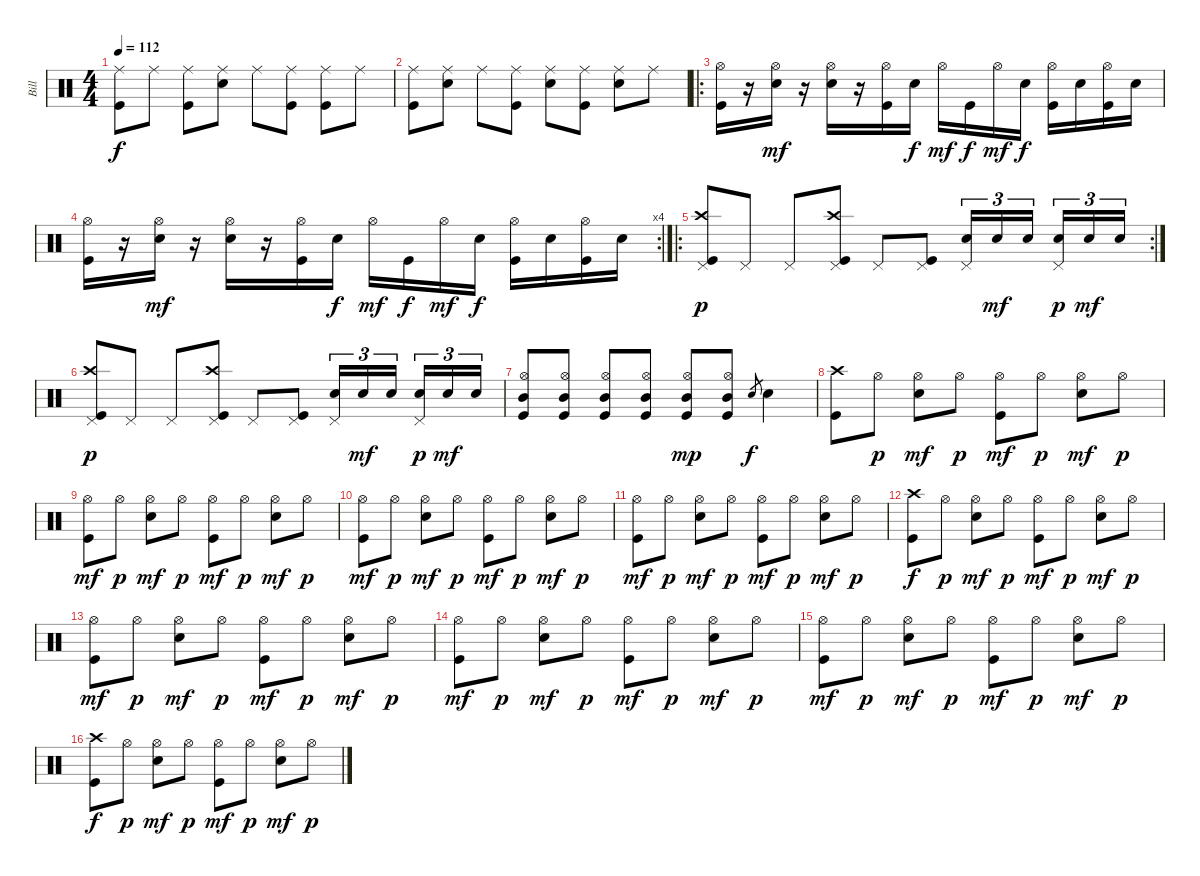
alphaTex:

\track ("Bill" "Bill") {instrument percussion}
\staff {score}
\articulation defaults
\ts (4 4)
\tempo 112
\clef neutral
\ks c
("Ride (middle)" "Kick (hit)").8{dy f} "Ride (middle)".8 ("Ride (middle)" "Kick (hit)").8 ("Ride (middle)" "Snare (hit) 2").8 "Ride (middle)".8 ("Ride (middle)" "Kick (hit)").8 ("Ride (middle)" "Kick (hit)").8 "Ride (middle)".8 |
("Ride (middle)" "Kick (hit)").8 ("Ride (middle)" "Snare (hit) 2").8 "Ride (middle)".8 ("Ride (middle)" "Kick (hit)").8 ("Ride (middle)" "Snare (hit) 2").8 ("Ride (middle)" "Kick (hit)").8 ("Ride (middle)" "Snare (hit) 2").8 "Ride (middle)".8 |
\ro
("Hi-Hat (open)" "Kick (hit)").16 r.16 ("Hi-Hat (open)" "Snare (hit) 2").16{dy mf} r.16 ("Hi-Hat (open)" "Snare (hit) 2").16 r.16 ("Hi-Hat (open)" "Kick (hit)").16 "Snare (hit) 2".16{dy f} "Hi-Hat (open)".16{dy mf} "Kick (hit)".16{dy f} "Hi-Hat (open)".16{dy mf} "Snare (hit) 2".16{dy f} ("Hi-Hat (open)" "Kick (hit)").16 "Snare (hit) 2".16 ("Hi-Hat (open)" "Kick (hit)").16 "Snare (hit) 2".16 |
\rc 4
("Hi-Hat (open)" "Kick (hit)").16 r.16 ("Hi-Hat (open)" "Snare (hit) 2").16{dy mf} r.16 ("Hi-Hat (open)" "Snare (hit) 2").16 r.16 ("Hi-Hat (open)" "Kick (hit)").16 "Snare (hit) 2".16{dy f} "Hi-Hat (open)".16{dy mf} "Kick (hit)".16{dy f} "Hi-Hat (open)".16{dy mf} "Snare (hit) 2".16{dy f} ("Hi-Hat (open)" "Kick (hit)").16 "Snare (hit) 2".16 ("Hi-Hat (open)" "Kick (hit)").16 "Snare (hit) 2".16 |
\ro
\rc 2
("Crash high (hit)" "Pedal Hi-Hat (hit)" "Kick (hit)").8{dy p} "Pedal Hi-Hat (hit)".8 "Pedal Hi-Hat (hit)".8 ("Crash high (hit)" "Pedal Hi-Hat (hit)" "Kick (hit)").8 "Pedal Hi-Hat (hit)".8 ("Pedal Hi-Hat (hit)" "Kick (hit)").8 ("Pedal Hi-Hat (hit)" "Snare (hit) 2").16{tu (3 2)} "Snare (hit) 2".16{tu (3 2) dy mf} "Snare (hit) 2".16{tu (3 2) beam splitsecondary} ("Pedal Hi-Hat (hit)" "Snare (hit) 2").16{tu (3 2) dy p} "Snare (hit) 2".16{tu (3 2) dy mf} "Snare (hit) 2".16{tu (3 2)} |
("Crash high (hit)" "Pedal Hi-Hat (hit)" "Kick (hit)").8{dy p} "Pedal Hi-Hat (hit)".8 "Pedal Hi-Hat (hit)".8 ("Crash high (hit)" "Pedal Hi-Hat (hit)" "Kick (hit)").8 "Pedal Hi-Hat (hit)".8 ("Pedal Hi-Hat (hit)" "Kick (hit)").8 ("Pedal Hi-Hat (hit)" "Snare (hit) 2").16{tu (3 2)} "Snare (hit) 2".16{tu (3 2) dy mf} "Snare (hit) 2".16{tu (3 2) beam splitsecondary} ("Pedal Hi-Hat (hit)" "Snare (hit) 2").16{tu (3 2) dy p} "Snare (hit) 2".16{tu (3 2) dy mf} "Snare (hit) 2".16{tu (3 2)} |
("Hi-Hat (open)" "Mid Tom (hit)" "Kick (hit)").8 ("Hi-Hat (open)" "Mid Tom (hit)" "Kick (hit)").8 ("Hi-Hat (open)" "Mid Tom (hit)" "Kick (hit)").8 ("Hi-Hat (open)" "Mid Tom (hit)" "Kick (hit)").8 ("Hi-Hat (open)" "Mid Tom (hit)" "Kick (hit)").8{dy mp} ("Hi-Hat (open)" "Mid Tom (hit)" "Kick (hit)").8 "Snare (hit) 2".8{gr dy f} "Snare (hit) 2".4 |
("Crash high (hit)" "Kick (hit)").8 "Hi-Hat (open)".8{dy p} ("Hi-Hat (open)" "Snare (hit) 2").8{dy mf} "Hi-Hat (open)".8{dy p} ("Hi-Hat (open)" "Kick (hit)").8{dy mf} "Hi-Hat (open)".8{dy p} ("Hi-Hat (open)" "Snare (hit) 2").8{dy mf} "Hi-Hat (open)".8{dy p} |
("Hi-Hat (open)" "Kick (hit)").8{dy mf} "Hi-Hat (open)".8{dy p} ("Hi-Hat (open)" "Snare (hit) 2").8{dy mf} "Hi-Hat (open)".8{dy p} ("Hi-Hat (open)" "Kick (hit)").8{dy mf} "Hi-Hat (open)".8{dy p} ("Hi-Hat (open)" "Snare (hit) 2").8{dy mf} "Hi-Hat (open)".8{dy p} |
("Hi-Hat (open)" "Kick (hit)").8{dy mf} "Hi-Hat (open)".8{dy p} ("Hi-Hat (open)" "Snare (hit) 2").8{dy mf} "Hi-Hat (open)".8{dy p} ("Hi-Hat (open)" "Kick (hit)").8{dy mf} "Hi-Hat (open)".8{dy p} ("Hi-Hat (open)" "Snare (hit) 2").8{dy mf} "Hi-Hat (open)".8{dy p} |
("Hi-Hat (open)" "Kick (hit)").8{dy mf} "Hi-Hat (open)".8{dy p} ("Hi-Hat (open)" "Snare (hit) 2").8{dy mf} "Hi-Hat (open)".8{dy p} ("Hi-Hat (open)" "Kick (hit)").8{dy mf} "Hi-Hat (open)".8{dy p} ("Hi-Hat (open)" "Snare (hit) 2").8{dy mf} "Hi-Hat (open)".8{dy p} |
("Crash high (hit)" "Kick (hit)").8{dy f} "Hi-Hat (open)".8{dy p} ("Hi-Hat (open)" "Snare (hit) 2").8{dy mf} "Hi-Hat (open)".8{dy p} ("Hi-Hat (open)" "Kick (hit)").8{dy mf} "Hi-Hat (open)".8{dy p} ("Hi-Hat (open)" "Snare (hit) 2").8{dy mf} "Hi-Hat (open)".8{dy p} |
("Hi-Hat (open)" "Kick (hit)").8{dy mf} "Hi-Hat (open)".8{dy p} ("Hi-Hat (open)" "Snare (hit) 2").8{dy mf} "Hi-Hat (open)".8{dy p} ("Hi-Hat (open)" "Kick (hit)").8{dy mf} "Hi-Hat (open)".8{dy p} ("Hi-Hat (open)" "Snare (hit) 2").8{dy mf} "Hi-Hat (open)".8{dy p} |
("Hi-Hat (open)" "Kick (hit)").8{dy mf} "Hi-Hat (open)".8{dy p} ("Hi-Hat (open)" "Snare (hit) 2").8{dy mf} "Hi-Hat (open)".8{dy p} ("Hi-Hat (open)" "Kick (hit)").8{dy mf} "Hi-Hat (open)".8{dy p} ("Hi-Hat (open)" "Snare (hit) 2").8{dy mf} "Hi-Hat (open)".8{dy p} |
("Hi-Hat (open)" "Kick (hit)").8{dy mf} "Hi-Hat (open)".8{dy p} ("Hi-Hat (open)" "Snare (hit) 2").8{dy mf} "Hi-Hat (open)".8{dy p} ("Hi-Hat (open)" "Kick (hit)").8{dy mf} "Hi-Hat (open)".8{dy p} ("Hi-Hat (open)" "Snare (hit) 2").8{dy mf} "Hi-Hat (open)".8{dy p} |
("Crash high (hit)" "Kick (hit)").8{dy f} "Hi-Hat (open)".8{dy p} ("Hi-Hat (open)" "Snare (hit) 2").8{dy mf} "Hi-Hat (open)".8{dy p} ("Hi-Hat (open)" "Kick (hit)").8{dy mf} "Hi-Hat (open)".8{dy p} ("Hi-Hat (open)" "Snare (hit) 2").8{dy mf} "Hi-Hat (open)".8{dy p}
